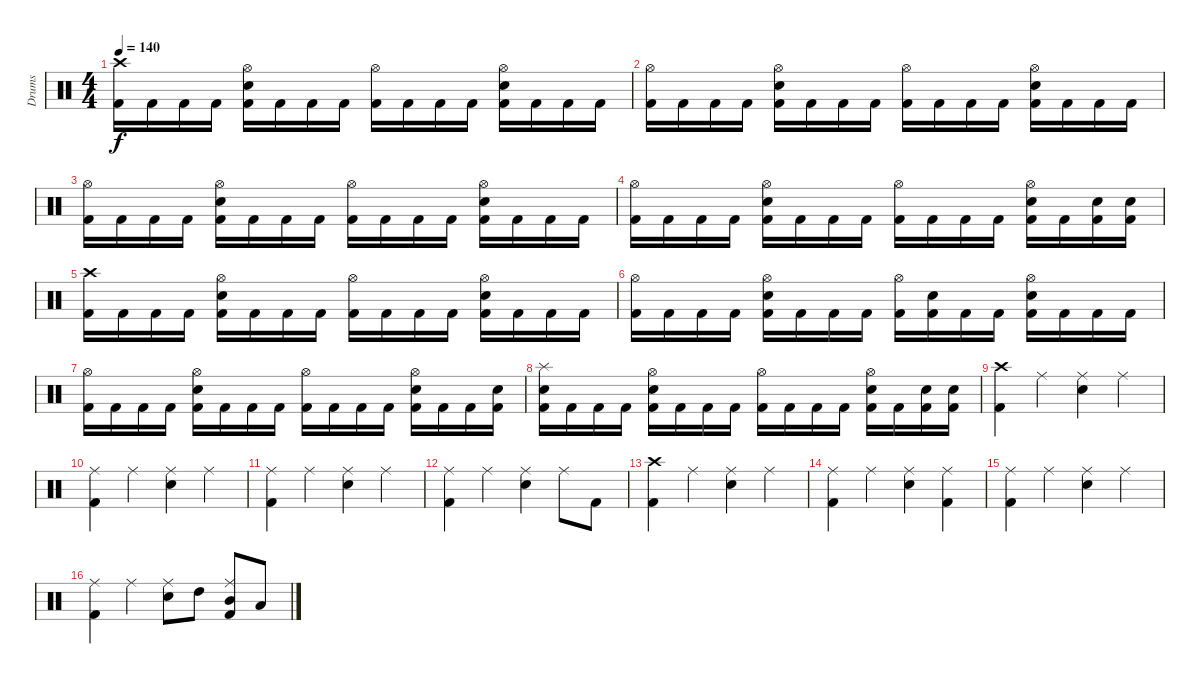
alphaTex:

\track ("Drums" "Drums") {instrument percussion}
\staff {score}
\articulation defaults
\ts (4 4)
\tempo 140
\clef neutral
\ks c
("Kick (hit) 2" "Crash high (hit)").16{dy f} "Kick (hit) 2".16 "Kick (hit) 2".16 "Kick (hit) 2".16 ("Kick (hit) 2" "Electric Snare (hit)" "Hi-Hat (open)").16 "Kick (hit) 2".16 "Kick (hit) 2".16 "Kick (hit) 2".16 ("Kick (hit) 2" "Hi-Hat (open)").16 "Kick (hit) 2".16 "Kick (hit) 2".16 "Kick (hit) 2".16 ("Kick (hit) 2" "Electric Snare (hit)" "Hi-Hat (open)").16 "Kick (hit) 2".16 "Kick (hit) 2".16 "Kick (hit) 2".16 |
("Kick (hit) 2" "Hi-Hat (open)").16 "Kick (hit) 2".16 "Kick (hit) 2".16 "Kick (hit) 2".16 ("Kick (hit) 2" "Electric Snare (hit)" "Hi-Hat (open)").16 "Kick (hit) 2".16 "Kick (hit) 2".16 "Kick (hit) 2".16 ("Kick (hit) 2" "Hi-Hat (open)").16 "Kick (hit) 2".16 "Kick (hit) 2".16 "Kick (hit) 2".16 ("Kick (hit) 2" "Electric Snare (hit)" "Hi-Hat (open)").16 "Kick (hit) 2".16 "Kick (hit) 2".16 "Kick (hit) 2".16 |
("Kick (hit) 2" "Hi-Hat (open)").16 "Kick (hit) 2".16 "Kick (hit) 2".16 "Kick (hit) 2".16 ("Kick (hit) 2" "Electric Snare (hit)" "Hi-Hat (open)").16 "Kick (hit) 2".16 "Kick (hit) 2".16 "Kick (hit) 2".16 ("Kick (hit) 2" "Hi-Hat (open)").16 "Kick (hit) 2".16 "Kick (hit) 2".16 "Kick (hit) 2".16 ("Kick (hit) 2" "Electric Snare (hit)" "Hi-Hat (open)").16 "Kick (hit) 2".16 "Kick (hit) 2".16 "Kick (hit) 2".16 |
("Kick (hit) 2" "Hi-Hat (open)").16 "Kick (hit) 2".16 "Kick (hit) 2".16 "Kick (hit) 2".16 ("Kick (hit) 2" "Electric Snare (hit)" "Hi-Hat (open)").16 "Kick (hit) 2".16 "Kick (hit) 2".16 "Kick (hit) 2".16 ("Kick (hit) 2" "Hi-Hat (open)").16 "Kick (hit) 2".16 "Kick (hit) 2".16 "Kick (hit) 2".16 ("Kick (hit) 2" "Electric Snare (hit)" "Hi-Hat (open)").16 "Kick (hit) 2".16 ("Kick (hit) 2" "Electric Snare (hit)").16 ("Kick (hit) 2" "Electric Snare (hit)").16 |
("Kick (hit) 2" "Crash high (hit)").16 "Kick (hit) 2".16 "Kick (hit) 2".16 "Kick (hit) 2".16 ("Kick (hit) 2" "Electric Snare (hit)" "Hi-Hat (open)").16 "Kick (hit) 2".16 "Kick (hit) 2".16 "Kick (hit) 2".16 ("Kick (hit) 2" "Hi-Hat (open)").16 "Kick (hit) 2".16 "Kick (hit) 2".16 "Kick (hit) 2".16 ("Kick (hit) 2" "Electric Snare (hit)" "Hi-Hat (open)").16 "Kick (hit) 2".16 "Kick (hit) 2".16 "Kick (hit) 2".16 |
("Kick (hit) 2" "Hi-Hat (open)").16 "Kick (hit) 2".16 "Kick (hit) 2".16 "Kick (hit) 2".16 ("Kick (hit) 2" "Electric Snare (hit)" "Hi-Hat (open)").16 "Kick (hit) 2".16 "Kick (hit) 2".16 "Kick (hit) 2".16 ("Kick (hit) 2" "Hi-Hat (open)").16 ("Kick (hit) 2" "Electric Snare (hit)").16 "Kick (hit) 2".16 "Kick (hit) 2".16 ("Kick (hit) 2" "Electric Snare (hit)" "Hi-Hat (open)").16 "Kick (hit) 2".16 "Kick (hit) 2".16 "Kick (hit) 2".16 |
("Kick (hit) 2" "Hi-Hat (open)").16 "Kick (hit) 2".16 "Kick (hit) 2".16 "Kick (hit) 2".16 ("Kick (hit) 2" "Electric Snare (hit)" "Hi-Hat (open)").16 "Kick (hit) 2".16 "Kick (hit) 2".16 "Kick (hit) 2".16 ("Kick (hit) 2" "Hi-Hat (open)").16 "Kick (hit) 2".16 "Kick (hit) 2".16 "Kick (hit) 2".16 ("Kick (hit) 2" "Electric Snare (hit)" "Hi-Hat (open)").16 "Kick (hit) 2".16 "Kick (hit) 2".16 ("Kick (hit) 2" "Electric Snare (hit)").16 |
("Kick (hit) 2" "Electric Snare (hit)" "Splash (hit)").16 "Kick (hit) 2".16 "Kick (hit) 2".16 "Kick (hit) 2".16 ("Kick (hit) 2" "Electric Snare (hit)" "Hi-Hat (open)").16 "Kick (hit) 2".16 "Kick (hit) 2".16 "Kick (hit) 2".16 ("Kick (hit) 2" "Hi-Hat (open)").16 "Kick (hit) 2".16 "Kick (hit) 2".16 "Kick (hit) 2".16 ("Kick (hit) 2" "Electric Snare (hit)" "Hi-Hat (open)").16 "Kick (hit) 2".16 ("Kick (hit) 2" "Electric Snare (hit)").16 ("Kick (hit) 2" "Electric Snare (hit)").16 |
("Kick (hit) 2" "Crash high (hit)").4 "Ride (middle)".4 ("Electric Snare (hit)" "Ride (middle)").4 "Ride (middle)".4 |
("Kick (hit) 2" "Ride (middle)").4 "Ride (middle)".4 ("Electric Snare (hit)" "Ride (middle)").4 "Ride (middle)".4 |
("Kick (hit) 2" "Ride (middle)").4 "Ride (middle)".4 ("Electric Snare (hit)" "Ride (middle)").4 "Ride (middle)".4 |
("Kick (hit) 2" "Ride (middle)").4 "Ride (middle)".4 ("Electric Snare (hit)" "Ride (middle)").4 "Ride (middle)".8 "Kick (hit) 2".8 |
("Kick (hit) 2" "Crash high (hit)").4 "Ride (middle)".4 ("Electric Snare (hit)" "Ride (middle)").4 "Ride (middle)".4 |
("Kick (hit) 2" "Ride (middle)").4 "Ride (middle)".4 ("Electric Snare (hit)" "Ride (middle)").4 ("Kick (hit) 2" "Ride (middle)").4 |
("Kick (hit) 2" "Ride (middle)").4 "Ride (middle)".4 ("Electric Snare (hit)" "Ride (middle)").4 "Ride (middle)".4 |
("Kick (hit) 2" "Ride (middle)").4 "Ride (middle)".4 ("Electric Snare (hit)" "Ride (middle)").8 "High Tom (hit)".8 ("Kick (hit) 2" "Ride (middle)" "Mid Tom (hit)").8 "Low Tom (hit)".8
